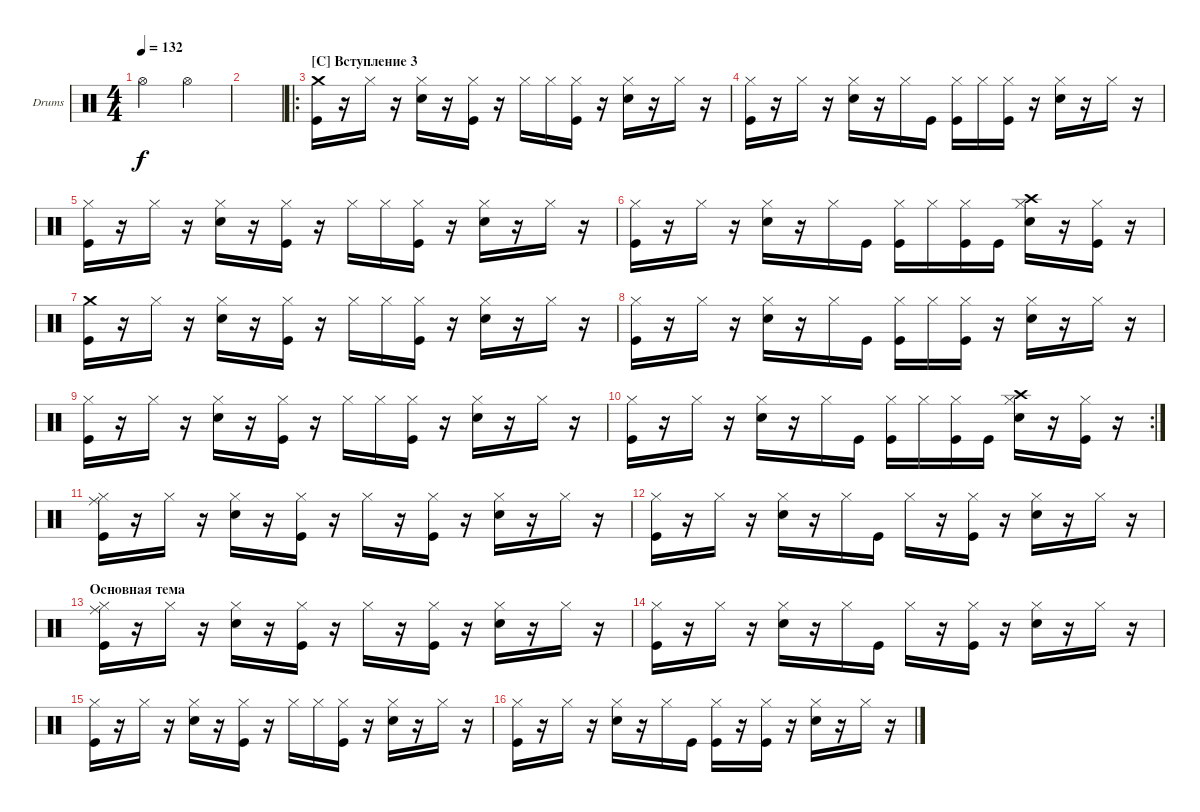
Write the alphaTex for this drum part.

\defaultSystemsLayout 4
\bracketExtendMode groupsimilarinstruments
\firstSystemTrackNameOrientation horizontal
\otherSystemsTrackNameOrientation horizontal
\track ("Drumkit" "Drums") {instrument percussion}
\staff {score}
\articulation defaults
\ts (4 4)
\tempo 132
\clef neutral
\scale
0.333333
\ks c "Hi-Hat (open)".2{dy f} "Hi-Hat (open)".2
|
\scale
0.333333 |
\ro
\section ("C" "Вступление 3")
\scale
0.333333 ("Kick (hit)" "Crash medium (hit)").16 r.16 "Hi-Hat (closed)".16 r.16 ("Snare (hit) 2" "Hi-Hat (closed)").16 r.16 ("Kick (hit)" "Hi-Hat (closed)").16 r.16 "Hi-Hat (closed)".16 "Hi-Hat (closed)".16 ("Kick (hit)" "Hi-Hat (closed)").16 r.16 ("Snare (hit) 2" "Hi-Hat (closed)").16 r.16 "Hi-Hat (closed)".16 r.16 |
\scale
0.333333 ("Kick (hit)" "Hi-Hat (closed)").16 r.16 "Hi-Hat (closed)".16 r.16 ("Snare (hit) 2" "Hi-Hat (closed)").16 r.16 "Hi-Hat (closed)".16 "Kick (hit)".16 ("Kick (hit)" "Hi-Hat (closed)").16 "Hi-Hat (closed)".16 ("Kick (hit)" "Hi-Hat (closed)").16 r.16 ("Snare (hit) 2" "Hi-Hat (closed)").16 r.16 "Hi-Hat (closed)".16 r.16 |
\scale
0.333333 ("Kick (hit)" "Hi-Hat (closed)").16 r.16 "Hi-Hat (closed)".16 r.16 ("Snare (hit) 2" "Hi-Hat (closed)").16 r.16 ("Kick (hit)" "Hi-Hat (closed)").16 r.16 "Hi-Hat (closed)".16 "Hi-Hat (closed)".16 ("Kick (hit)" "Hi-Hat (closed)").16 r.16 ("Snare (hit) 2" "Hi-Hat (closed)").16 r.16 "Hi-Hat (closed)".16 r.16 |
\scale
0.333333 ("Kick (hit)" "Hi-Hat (closed)").16 r.16 "Hi-Hat (closed)".16 r.16 ("Snare (hit) 2" "Hi-Hat (closed)").16 r.16 "Hi-Hat (closed)".16 "Kick (hit)".16 ("Kick (hit)" "Hi-Hat (closed)").16 "Hi-Hat (closed)".16 ("Kick (hit)" "Hi-Hat (closed)").16 "Kick (hit)".16 ("Snare (hit) 2" "Crash high (hit)" "Hi-Hat (closed)").16 r.16 ("Kick (hit)" "Hi-Hat (closed)").16 r.16 |
\scale
0.333333 ("Kick (hit)" "Crash medium (hit)").16 r.16 "Hi-Hat (closed)".16 r.16 ("Snare (hit) 2" "Hi-Hat (closed)").16 r.16 ("Kick (hit)" "Hi-Hat (closed)").16 r.16 "Hi-Hat (closed)".16 "Hi-Hat (closed)".16 ("Kick (hit)" "Hi-Hat (closed)").16 r.16 ("Snare (hit) 2" "Hi-Hat (closed)").16 r.16 "Hi-Hat (closed)".16 r.16 |
\scale
0.333333 ("Kick (hit)" "Hi-Hat (closed)").16 r.16 "Hi-Hat (closed)".16 r.16 ("Snare (hit) 2" "Hi-Hat (closed)").16 r.16 "Hi-Hat (closed)".16 "Kick (hit)".16 ("Kick (hit)" "Hi-Hat (closed)").16 "Hi-Hat (closed)".16 ("Kick (hit)" "Hi-Hat (closed)").16 r.16 ("Snare (hit) 2" "Hi-Hat (closed)").16 r.16 "Hi-Hat (closed)".16 r.16 |
\scale
0.333333 ("Kick (hit)" "Hi-Hat (closed)").16 r.16 "Hi-Hat (closed)".16 r.16 ("Snare (hit) 2" "Hi-Hat (closed)").16 r.16 ("Kick (hit)" "Hi-Hat (closed)").16 r.16 "Hi-Hat (closed)".16 "Hi-Hat (closed)".16 ("Kick (hit)" "Hi-Hat (closed)").16 r.16 ("Snare (hit) 2" "Hi-Hat (closed)").16 r.16 "Hi-Hat (closed)".16 r.16 |
\rc 2
\scale
0.333333 ("Kick (hit)" "Hi-Hat (closed)").16 r.16 "Hi-Hat (closed)".16 r.16 ("Snare (hit) 2" "Hi-Hat (closed)").16 r.16 "Hi-Hat (closed)".16 "Kick (hit)".16 ("Kick (hit)" "Hi-Hat (closed)").16 "Hi-Hat (closed)".16 ("Kick (hit)" "Hi-Hat (closed)").16 "Kick (hit)".16 ("Snare (hit) 2" "Crash high (hit)" "Hi-Hat (closed)").16 r.16 ("Kick (hit)" "Hi-Hat (closed)").16 r.16 |
\scale
0.333333 ("Kick (hit)" "Ride (middle)" "Hi-Hat (closed)").16 r.16 "Hi-Hat (closed)".16 r.16 ("Snare (hit) 2" "Hi-Hat (closed)").16 r.16 ("Kick (hit)" "Hi-Hat (closed)").16 r.16 "Hi-Hat (closed)".16 r.16 ("Kick (hit)" "Hi-Hat (closed)").16 r.16 ("Snare (hit) 2" "Hi-Hat (closed)").16 r.16 "Hi-Hat (closed)".16 r.16 |
\scale
0.333333 ("Kick (hit)" "Hi-Hat (closed)").16 r.16 "Hi-Hat (closed)".16 r.16 ("Snare (hit) 2" "Hi-Hat (closed)").16 r.16 "Hi-Hat (closed)".16 "Kick (hit)".16 "Hi-Hat (closed)".16 r.16 ("Kick (hit)" "Hi-Hat (closed)").16 r.16 ("Snare (hit) 2" "Hi-Hat (closed)").16 r.16 "Hi-Hat (closed)".16 r.16 |
\section ("" "Основная тема")
\scale
0.333333 ("Kick (hit)" "Ride (middle)" "Hi-Hat (closed)").16 r.16 "Hi-Hat (closed)".16 r.16 ("Snare (hit) 2" "Hi-Hat (closed)").16 r.16 ("Kick (hit)" "Hi-Hat (closed)").16 r.16 "Hi-Hat (closed)".16 r.16 ("Kick (hit)" "Hi-Hat (closed)").16 r.16 ("Snare (hit) 2" "Hi-Hat (closed)").16 r.16 "Hi-Hat (closed)".16 r.16 |
("Kick (hit)" "Hi-Hat (closed)").16 r.16 "Hi-Hat (closed)".16 r.16 ("Snare (hit) 2" "Hi-Hat (closed)").16 r.16 "Hi-Hat (closed)".16 "Kick (hit)".16 "Hi-Hat (closed)".16 r.16 ("Kick (hit)" "Hi-Hat (closed)").16 r.16 ("Snare (hit) 2" "Hi-Hat (closed)").16 r.16 "Hi-Hat (closed)".16 r.16 |
\scale
0.333333 ("Kick (hit)" "Hi-Hat (closed)").16 r.16 "Hi-Hat (closed)".16 r.16 ("Snare (hit) 2" "Hi-Hat (closed)").16 r.16 ("Kick (hit)" "Hi-Hat (closed)").16 r.16 "Hi-Hat (closed)".16 "Hi-Hat (closed)".16 ("Kick (hit)" "Hi-Hat (closed)").16 r.16 ("Snare (hit) 2" "Hi-Hat (closed)").16 r.16 "Hi-Hat (closed)".16 r.16 |
("Kick (hit)" "Hi-Hat (closed)").16 r.16 "Hi-Hat (closed)".16 r.16 ("Snare (hit) 2" "Hi-Hat (closed)").16 r.16 "Hi-Hat (closed)".16 "Kick (hit)".16 ("Kick (hit)" "Hi-Hat (closed)").16 r.16 ("Kick (hit)" "Hi-Hat (closed)").16 r.16 ("Snare (hit) 2" "Hi-Hat (closed)").16 r.16 "Hi-Hat (closed)".16 r.16
